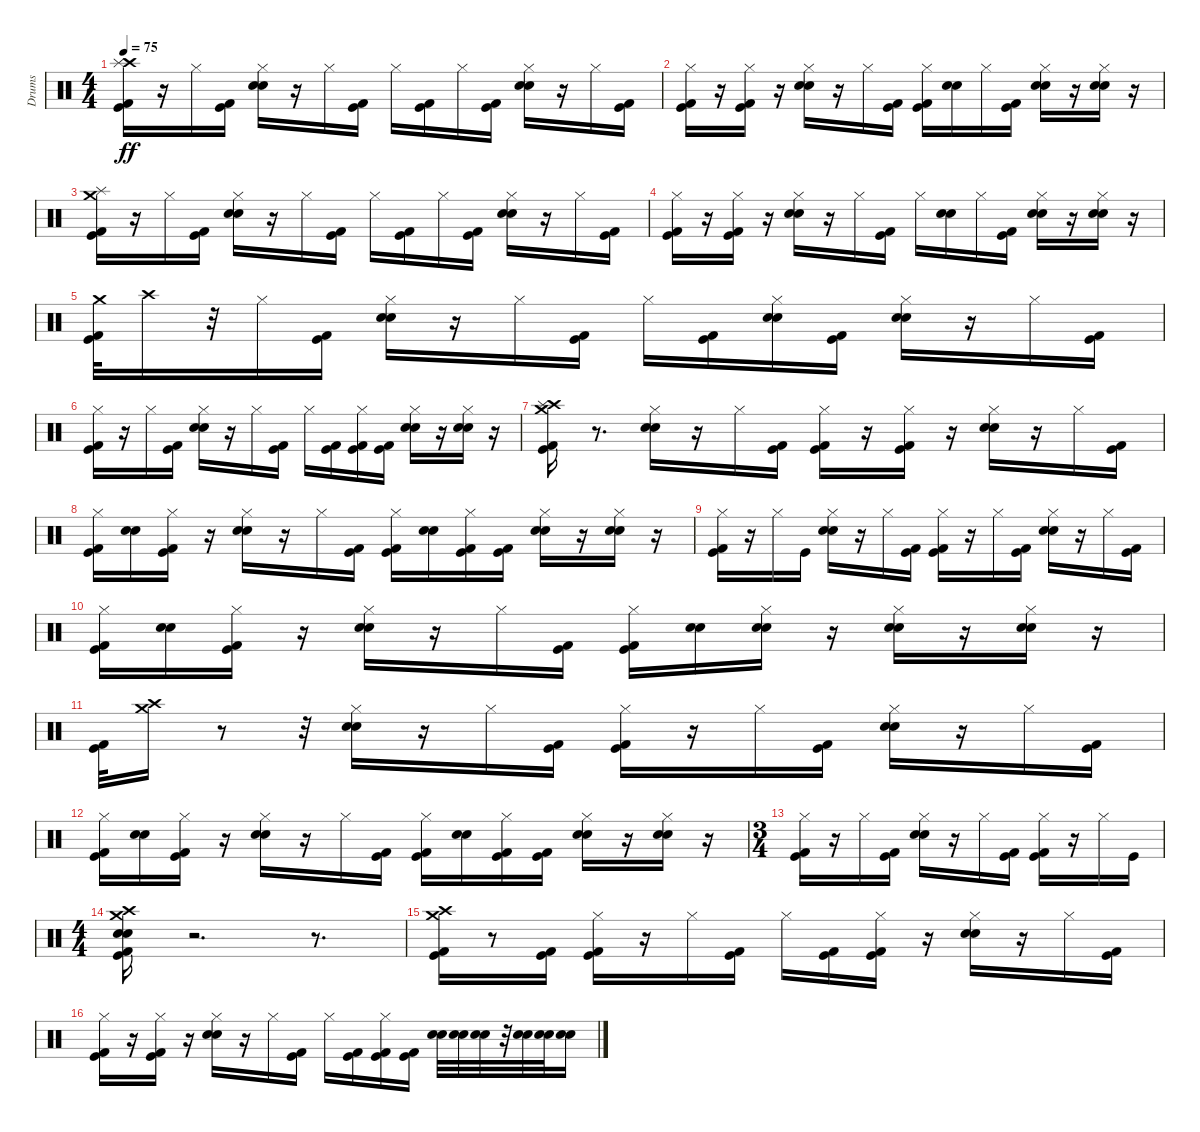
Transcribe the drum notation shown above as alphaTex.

\track ("Drums" "Drums") {instrument percussion}
\staff {score}
\articulation defaults
\ts (4 4)
\tempo 75
\clef neutral
\ks c
("Crash high (hit)" "Kick (hit) 2" "Splash (hit)" "Kick (hit)").16{dy ff} r.16 "Hi-Hat (closed)".16 ("Kick (hit)" "Kick (hit) 2").16 ("Electric Snare (hit)" "Snare (hit) 2" "Hi-Hat (closed)").16 r.16 "Hi-Hat (closed)".16 ("Kick (hit)" "Kick (hit) 2").16 "Hi-Hat (closed)".16 ("Kick (hit)" "Kick (hit) 2").16 "Hi-Hat (closed)".16 ("Kick (hit)" "Kick (hit) 2").16 ("Hi-Hat (closed)" "Snare (hit) 2" "Electric Snare (hit)").16 r.16 "Hi-Hat (closed)".16 ("Kick (hit)" "Kick (hit) 2").16 |
("Kick (hit)" "Hi-Hat (closed)" "Kick (hit) 2").16 r.16 ("Kick (hit) 2" "Kick (hit)" "Hi-Hat (closed)").16 r.16 ("Hi-Hat (closed)" "Electric Snare (hit)" "Snare (hit) 2").16 r.16 "Hi-Hat (closed)".16 ("Kick (hit)" "Kick (hit) 2").16 ("Hi-Hat (closed)" "Kick (hit)" "Kick (hit) 2").16 ("Snare (hit) 2" "Electric Snare (hit)").16 "Hi-Hat (closed)".16 ("Kick (hit)" "Kick (hit) 2").16 ("Snare (hit) 2" "Electric Snare (hit)" "Hi-Hat (closed)").16 r.16 ("Hi-Hat (closed)" "Snare (hit) 2" "Electric Snare (hit)").16 r.16 |
("Crash medium (hit)" "Splash (hit)" "Kick (hit) 2" "Kick (hit)").16 r.16 "Hi-Hat (closed)".16 ("Kick (hit) 2" "Kick (hit)").16 ("Snare (hit) 2" "Hi-Hat (closed)" "Electric Snare (hit)").16 r.16 "Hi-Hat (closed)".16 ("Kick (hit) 2" "Kick (hit)").16 "Hi-Hat (closed)".16 ("Kick (hit) 2" "Kick (hit)").16 "Hi-Hat (closed)".16 ("Kick (hit) 2" "Kick (hit)").16 ("Hi-Hat (closed)" "Snare (hit) 2" "Electric Snare (hit)").16 r.16 "Hi-Hat (closed)".16 ("Kick (hit)" "Kick (hit) 2").16 |
("Kick (hit)" "Kick (hit) 2" "Hi-Hat (closed)").16 r.16 ("Kick (hit)" "Hi-Hat (closed)" "Kick (hit) 2").16 r.16 ("Electric Snare (hit)" "Hi-Hat (closed)" "Snare (hit) 2").16 r.16 "Hi-Hat (closed)".16 ("Kick (hit)" "Kick (hit) 2").16 "Hi-Hat (closed)".16 ("Electric Snare (hit)" "Snare (hit) 2").16 "Hi-Hat (closed)".16 ("Kick (hit) 2" "Kick (hit)").16 ("Electric Snare (hit)" "Hi-Hat (closed)" "Snare (hit) 2").16 r.16 ("Snare (hit) 2" "Electric Snare (hit)" "Hi-Hat (closed)").16 r.16 |
("Kick (hit) 2" "Crash medium (hit)" "Kick (hit)").32 "Crash high (hit)".16 r.32 "Hi-Hat (closed)".16 ("Kick (hit)" "Kick (hit) 2").16 ("Electric Snare (hit)" "Hi-Hat (closed)" "Snare (hit) 2").16 r.16 "Hi-Hat (closed)".16 ("Kick (hit)" "Kick (hit) 2").16 "Hi-Hat (closed)".16 ("Kick (hit)" "Kick (hit) 2").16 ("Electric Snare (hit)" "Hi-Hat (closed)" "Snare (hit) 2").16 ("Kick (hit)" "Kick (hit) 2").16 ("Snare (hit) 2" "Hi-Hat (closed)" "Electric Snare (hit)").16 r.16 "Hi-Hat (closed)".16 ("Kick (hit) 2" "Kick (hit)").16 |
("Hi-Hat (closed)" "Kick (hit) 2" "Kick (hit)").16 r.16 "Hi-Hat (closed)".16 ("Kick (hit) 2" "Kick (hit)").16 ("Hi-Hat (closed)" "Snare (hit) 2" "Electric Snare (hit)").16 r.16 "Hi-Hat (closed)".16 ("Kick (hit)" "Kick (hit) 2").16 "Hi-Hat (closed)".16 ("Kick (hit)" "Kick (hit) 2").16 ("Hi-Hat (closed)" "Kick (hit) 2" "Kick (hit)").16 ("Kick (hit) 2" "Kick (hit)").16 ("Hi-Hat (closed)" "Electric Snare (hit)" "Snare (hit) 2").16 r.16 ("Snare (hit) 2" "Electric Snare (hit)" "Hi-Hat (closed)").16 r.16 |
("Kick (hit) 2" "Crash high (hit)" "Splash (hit)" "Crash medium (hit)" "Kick (hit)").16 r.8{d} ("Electric Snare (hit)" "Hi-Hat (closed)" "Snare (hit) 2").16 r.16 "Hi-Hat (closed)".16 ("Kick (hit)" "Kick (hit) 2").16 ("Kick (hit)" "Kick (hit) 2" "Hi-Hat (closed)").16 r.16 ("Kick (hit) 2" "Kick (hit)" "Hi-Hat (closed)").16 r.16 ("Electric Snare (hit)" "Hi-Hat (closed)" "Snare (hit) 2").16 r.16 "Hi-Hat (closed)".16 ("Kick (hit) 2" "Kick (hit)").16 |
("Kick (hit)" "Kick (hit) 2" "Hi-Hat (closed)").16 ("Snare (hit) 2" "Electric Snare (hit)").16 ("Hi-Hat (closed)" "Kick (hit)" "Kick (hit) 2").16 r.16 ("Hi-Hat (closed)" "Electric Snare (hit)" "Snare (hit) 2").16 r.16 "Hi-Hat (closed)".16 ("Kick (hit) 2" "Kick (hit)").16 ("Kick (hit) 2" "Kick (hit)" "Hi-Hat (closed)").16 ("Electric Snare (hit)" "Snare (hit) 2").16 ("Kick (hit) 2" "Hi-Hat (closed)" "Kick (hit)").16 ("Kick (hit) 2" "Kick (hit)").16 ("Snare (hit) 2" "Hi-Hat (closed)" "Electric Snare (hit)").16 r.16 ("Electric Snare (hit)" "Hi-Hat (closed)" "Snare (hit) 2").16 r.16 |
("Kick (hit)" "Hi-Hat (closed)" "Kick (hit) 2").16 r.16 "Hi-Hat (closed)".16 "Kick (hit)".16 ("Snare (hit) 2" "Electric Snare (hit)" "Hi-Hat (closed)").16 r.16 "Hi-Hat (closed)".16 ("Kick (hit)" "Kick (hit) 2").16 ("Hi-Hat (closed)" "Kick (hit) 2" "Kick (hit)").16 r.16 "Hi-Hat (closed)".16 ("Kick (hit) 2" "Kick (hit)").16 ("Electric Snare (hit)" "Hi-Hat (closed)" "Snare (hit) 2").16 r.16 "Hi-Hat (closed)".16 ("Kick (hit)" "Kick (hit) 2").16 |
("Hi-Hat (closed)" "Kick (hit) 2" "Kick (hit)").16 ("Electric Snare (hit)" "Snare (hit) 2").16 ("Kick (hit) 2" "Kick (hit)" "Hi-Hat (closed)").16 r.16 ("Snare (hit) 2" "Hi-Hat (closed)" "Electric Snare (hit)").16 r.16 "Hi-Hat (closed)".16 ("Kick (hit)" "Kick (hit) 2").16 ("Kick (hit) 2" "Kick (hit)" "Hi-Hat (closed)").16 ("Snare (hit) 2" "Electric Snare (hit)").16 ("Hi-Hat (closed)" "Electric Snare (hit)" "Snare (hit) 2").16 r.16 ("Snare (hit) 2" "Electric Snare (hit)" "Hi-Hat (closed)").16 r.16 ("Hi-Hat (closed)" "Electric Snare (hit)" "Snare (hit) 2").16 r.16 |
("Kick (hit) 2" "Kick (hit)").32 ("Crash medium (hit)" "Crash high (hit)").16 r.8 r.32 ("Snare (hit) 2" "Hi-Hat (closed)" "Electric Snare (hit)").16 r.16 "Hi-Hat (closed)".16 ("Kick (hit) 2" "Kick (hit)").16 ("Kick (hit)" "Kick (hit) 2" "Hi-Hat (closed)").16 r.16 "Hi-Hat (closed)".16 ("Kick (hit) 2" "Kick (hit)").16 ("Electric Snare (hit)" "Snare (hit) 2" "Hi-Hat (closed)").16 r.16 "Hi-Hat (closed)".16 ("Kick (hit)" "Kick (hit) 2").16 |
("Kick (hit) 2" "Kick (hit)" "Hi-Hat (closed)").16 ("Snare (hit) 2" "Electric Snare (hit)").16 ("Kick (hit)" "Kick (hit) 2" "Hi-Hat (closed)").16 r.16 ("Hi-Hat (closed)" "Snare (hit) 2" "Electric Snare (hit)").16 r.16 "Hi-Hat (closed)".16 ("Kick (hit) 2" "Kick (hit)").16 ("Hi-Hat (closed)" "Kick (hit)" "Kick (hit) 2").16 ("Snare (hit) 2" "Electric Snare (hit)").16 ("Hi-Hat (closed)" "Kick (hit)" "Kick (hit) 2").16 ("Kick (hit) 2" "Kick (hit)").16 ("Hi-Hat (closed)" "Snare (hit) 2" "Electric Snare (hit)").16 r.16 ("Electric Snare (hit)" "Hi-Hat (closed)" "Snare (hit) 2").16 r.16 |
\ts (3 4)
("Kick (hit) 2" "Kick (hit)" "Hi-Hat (closed)").16 r.16 "Hi-Hat (closed)".16 ("Kick (hit)" "Kick (hit) 2").16 ("Snare (hit) 2" "Electric Snare (hit)" "Hi-Hat (closed)").16 r.16 "Hi-Hat (closed)".16 ("Kick (hit) 2" "Kick (hit)").16 ("Hi-Hat (closed)" "Kick (hit) 2" "Kick (hit)").16 r.16 "Hi-Hat (closed)".16 "Kick (hit)".16 |
\ts (4 4)
("Kick (hit) 2" "Snare (hit) 2" "Crash medium (hit)" "Kick (hit)" "Crash high (hit)" "Electric Snare (hit)").16 r.2{d} r.8{d} |
("Crash medium (hit)" "Kick (hit)" "Kick (hit) 2" "Crash high (hit)").16 r.8 ("Kick (hit) 2" "Kick (hit)").16 ("Kick (hit) 2" "Hi-Hat (closed)" "Kick (hit)").16 r.16 "Hi-Hat (closed)".16 ("Kick (hit) 2" "Kick (hit)").16 "Hi-Hat (closed)".16 ("Kick (hit)" "Kick (hit) 2").16 ("Hi-Hat (closed)" "Kick (hit) 2" "Kick (hit)").16 r.16 ("Electric Snare (hit)" "Snare (hit) 2" "Hi-Hat (closed)").16 r.16 "Hi-Hat (closed)".16 ("Kick (hit)" "Kick (hit) 2").16 |
("Kick (hit)" "Hi-Hat (closed)" "Kick (hit) 2").16 r.16 ("Kick (hit) 2" "Hi-Hat (closed)" "Kick (hit)").16 r.16 ("Hi-Hat (closed)" "Electric Snare (hit)" "Snare (hit) 2").16 r.16 "Hi-Hat (closed)".16 ("Kick (hit)" "Kick (hit) 2").16 "Hi-Hat (closed)".16 ("Kick (hit) 2" "Kick (hit)").16 ("Hi-Hat (closed)" "Kick (hit)" "Kick (hit) 2").16 ("Kick (hit)" "Kick (hit) 2").16 ("Snare (hit) 2" "Electric Snare (hit)").32 ("Electric Snare (hit)" "Snare (hit) 2").32 ("Electric Snare (hit)" "Snare (hit) 2").32 r.32 ("Snare (hit) 2" "Electric Snare (hit)").32 ("Electric Snare (hit)" "Snare (hit) 2").32 ("Snare (hit) 2" "Electric Snare (hit)").16
